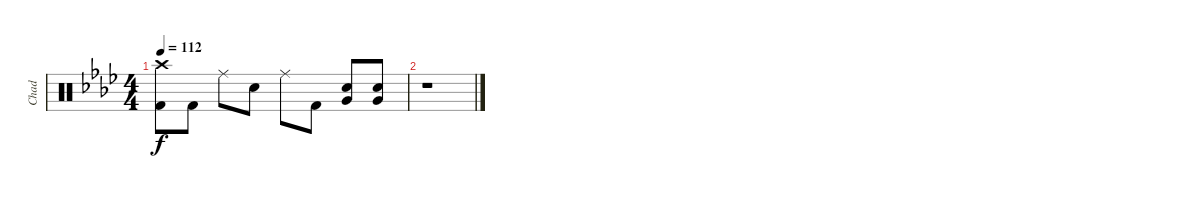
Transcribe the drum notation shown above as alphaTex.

\track ("Chad" "Chad") {instrument percussion}
\staff {score}
\articulation defaults
\ts (4 4)
\tempo 112
\clef neutral
\ks ab
("Crash high (hit)" "Kick (hit) 2").8{dy f} "Kick (hit) 2".8 "Ride (middle)".8 "Snare (hit) 2".8 "Ride (middle)".8 "Kick (hit) 2".8 ("Snare (hit) 2" "Very Low Tom (hit)").8 ("Snare (hit) 2" "Very Low Tom (hit)").8 |
r.1
